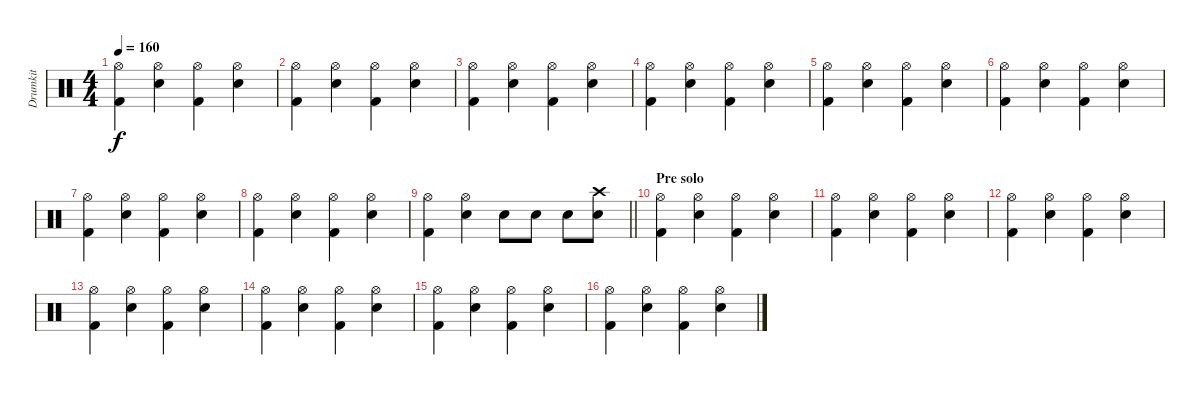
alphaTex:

\track ("Drumkit" "Drumkit") {instrument percussion}
\staff {score}
\articulation defaults
\ts (4 4)
\tempo 160
\clef neutral
\ks c
("Hi-Hat (open)" "Kick (hit) 2").4{dy f} ("Hi-Hat (open)" "Electric Snare (hit)").4 ("Hi-Hat (open)" "Kick (hit) 2").4 ("Hi-Hat (open)" "Electric Snare (hit)").4 |
("Hi-Hat (open)" "Kick (hit) 2").4 ("Hi-Hat (open)" "Electric Snare (hit)").4 ("Hi-Hat (open)" "Kick (hit) 2").4 ("Hi-Hat (open)" "Electric Snare (hit)").4 |
("Hi-Hat (open)" "Kick (hit) 2").4 ("Hi-Hat (open)" "Electric Snare (hit)").4 ("Hi-Hat (open)" "Kick (hit) 2").4 ("Hi-Hat (open)" "Electric Snare (hit)").4 |
("Hi-Hat (open)" "Kick (hit) 2").4 ("Hi-Hat (open)" "Electric Snare (hit)").4 ("Hi-Hat (open)" "Kick (hit) 2").4 ("Hi-Hat (open)" "Electric Snare (hit)").4 |
("Hi-Hat (open)" "Kick (hit) 2").4 ("Hi-Hat (open)" "Electric Snare (hit)").4 ("Hi-Hat (open)" "Kick (hit) 2").4 ("Hi-Hat (open)" "Electric Snare (hit)").4 |
("Hi-Hat (open)" "Kick (hit) 2").4 ("Hi-Hat (open)" "Electric Snare (hit)").4 ("Hi-Hat (open)" "Kick (hit) 2").4 ("Hi-Hat (open)" "Electric Snare (hit)").4 |
("Hi-Hat (open)" "Kick (hit) 2").4 ("Hi-Hat (open)" "Electric Snare (hit)").4 ("Hi-Hat (open)" "Kick (hit) 2").4 ("Hi-Hat (open)" "Electric Snare (hit)").4 |
("Hi-Hat (open)" "Kick (hit) 2").4 ("Hi-Hat (open)" "Electric Snare (hit)").4 ("Hi-Hat (open)" "Kick (hit) 2").4 ("Hi-Hat (open)" "Electric Snare (hit)").4 |
\barLineRight lightlight
("Hi-Hat (open)" "Kick (hit) 2").4 ("Hi-Hat (open)" "Electric Snare (hit)").4 "Electric Snare (hit)".8 "Electric Snare (hit)".8 "Electric Snare (hit)".8 ("Crash high (hit)" "Electric Snare (hit)").8 |
\section ("" "Pre solo")
("Hi-Hat (open)" "Kick (hit) 2").4 ("Hi-Hat (open)" "Electric Snare (hit)").4 ("Hi-Hat (open)" "Kick (hit) 2").4 ("Hi-Hat (open)" "Electric Snare (hit)").4 |
("Hi-Hat (open)" "Kick (hit) 2").4 ("Hi-Hat (open)" "Electric Snare (hit)").4 ("Hi-Hat (open)" "Kick (hit) 2").4 ("Hi-Hat (open)" "Electric Snare (hit)").4 |
("Hi-Hat (open)" "Kick (hit) 2").4 ("Hi-Hat (open)" "Electric Snare (hit)").4 ("Hi-Hat (open)" "Kick (hit) 2").4 ("Hi-Hat (open)" "Electric Snare (hit)").4 |
("Hi-Hat (open)" "Kick (hit) 2").4 ("Hi-Hat (open)" "Electric Snare (hit)").4 ("Hi-Hat (open)" "Kick (hit) 2").4 ("Hi-Hat (open)" "Electric Snare (hit)").4 |
("Hi-Hat (open)" "Kick (hit) 2").4 ("Hi-Hat (open)" "Electric Snare (hit)").4 ("Hi-Hat (open)" "Kick (hit) 2").4 ("Hi-Hat (open)" "Electric Snare (hit)").4 |
("Hi-Hat (open)" "Kick (hit) 2").4 ("Hi-Hat (open)" "Electric Snare (hit)").4 ("Hi-Hat (open)" "Kick (hit) 2").4 ("Hi-Hat (open)" "Electric Snare (hit)").4 |
("Hi-Hat (open)" "Kick (hit) 2").4 ("Hi-Hat (open)" "Electric Snare (hit)").4 ("Hi-Hat (open)" "Kick (hit) 2").4 ("Hi-Hat (open)" "Electric Snare (hit)").4
